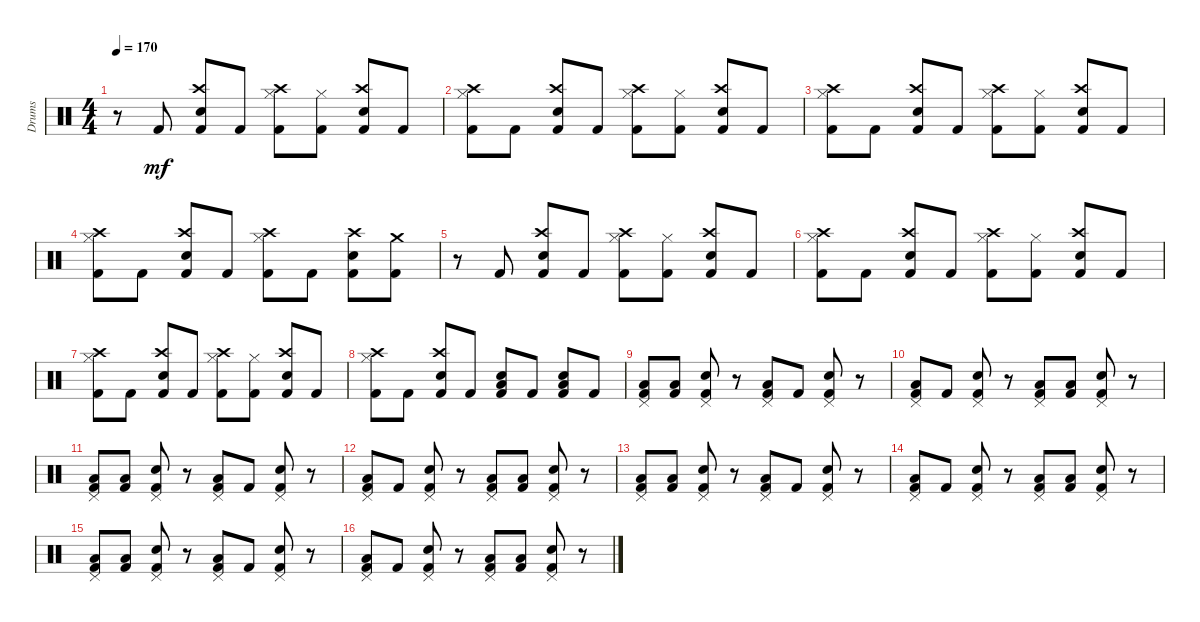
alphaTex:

\track ("Drums" "Drums") {instrument percussion}
\staff {score}
\articulation defaults
\ts (4 4)
\tempo 170
\clef neutral
\ks c
r.8{dy mf} "Kick (hit) 2".8 ("Crash high (hit)" "Electric Snare (hit)" "Kick (hit) 2").8 "Kick (hit) 2".8 ("Crash high (hit)" "Hi-Hat (closed)" "Kick (hit) 2").8 ("Hi-Hat (closed)" "Kick (hit) 2").8 ("Crash high (hit)" "Electric Snare (hit)" "Kick (hit) 2").8 "Kick (hit) 2".8 |
("Crash high (hit)" "Hi-Hat (closed)" "Kick (hit) 2").8 "Kick (hit) 2".8 ("Crash high (hit)" "Electric Snare (hit)" "Kick (hit) 2").8 "Kick (hit) 2".8 ("Crash high (hit)" "Hi-Hat (closed)" "Kick (hit) 2").8 ("Hi-Hat (closed)" "Kick (hit) 2").8 ("Crash high (hit)" "Electric Snare (hit)" "Kick (hit) 2").8 "Kick (hit) 2".8 |
("Crash high (hit)" "Hi-Hat (closed)" "Kick (hit) 2").8 "Kick (hit) 2".8 ("Crash high (hit)" "Electric Snare (hit)" "Kick (hit) 2").8 "Kick (hit) 2".8 ("Crash high (hit)" "Hi-Hat (closed)" "Kick (hit) 2").8 ("Hi-Hat (closed)" "Kick (hit) 2").8 ("Crash high (hit)" "Electric Snare (hit)" "Kick (hit) 2").8 "Kick (hit) 2".8 |
("Crash high (hit)" "Hi-Hat (closed)" "Kick (hit) 2").8 "Kick (hit) 2".8 ("Crash high (hit)" "Electric Snare (hit)" "Kick (hit) 2").8 "Kick (hit) 2".8 ("Crash high (hit)" "Hi-Hat (closed)" "Kick (hit) 2").8 "Kick (hit) 2".8 ("Crash high (hit)" "Electric Snare (hit)" "Kick (hit) 2").8 ("Crash medium (hit)" "Kick (hit) 2").8 |
r.8 "Kick (hit) 2".8 ("Crash high (hit)" "Electric Snare (hit)" "Kick (hit) 2").8 "Kick (hit) 2".8 ("Crash high (hit)" "Hi-Hat (closed)" "Kick (hit) 2").8 ("Hi-Hat (closed)" "Kick (hit) 2").8 ("Crash high (hit)" "Electric Snare (hit)" "Kick (hit) 2").8 "Kick (hit) 2".8 |
("Crash high (hit)" "Hi-Hat (closed)" "Kick (hit) 2").8 "Kick (hit) 2".8 ("Crash high (hit)" "Electric Snare (hit)" "Kick (hit) 2").8 "Kick (hit) 2".8 ("Crash high (hit)" "Hi-Hat (closed)" "Kick (hit) 2").8 ("Hi-Hat (closed)" "Kick (hit) 2").8 ("Crash high (hit)" "Electric Snare (hit)" "Kick (hit) 2").8 "Kick (hit) 2".8 |
("Crash high (hit)" "Hi-Hat (closed)" "Kick (hit) 2").8 "Kick (hit) 2".8 ("Crash high (hit)" "Electric Snare (hit)" "Kick (hit) 2").8 "Kick (hit) 2".8 ("Crash high (hit)" "Hi-Hat (closed)" "Kick (hit) 2").8 ("Hi-Hat (closed)" "Kick (hit) 2").8 ("Crash high (hit)" "Electric Snare (hit)" "Kick (hit) 2").8 "Kick (hit) 2".8 |
("Crash high (hit)" "Hi-Hat (closed)" "Kick (hit) 2").8 "Kick (hit) 2".8 ("Crash high (hit)" "Electric Snare (hit)" "Kick (hit) 2").8 "Kick (hit) 2".8 ("Low Tom (hit)" "Electric Snare (hit)" "Kick (hit) 2").8 "Kick (hit) 2".8 ("Low Tom (hit)" "Electric Snare (hit)" "Kick (hit) 2").8 "Kick (hit) 2".8 |
("Pedal Hi-Hat (hit)" "Low Tom (hit)" "Kick (hit) 2").8 ("Low Tom (hit)" "Kick (hit) 2").8 ("Pedal Hi-Hat (hit)" "Electric Snare (hit)" "Kick (hit) 2").8 r.8 ("Pedal Hi-Hat (hit)" "Low Tom (hit)" "Kick (hit) 2").8 "Kick (hit) 2".8 ("Pedal Hi-Hat (hit)" "Electric Snare (hit)" "Kick (hit) 2").8 r.8 |
("Pedal Hi-Hat (hit)" "Low Tom (hit)" "Kick (hit) 2").8 "Kick (hit) 2".8 ("Pedal Hi-Hat (hit)" "Electric Snare (hit)" "Kick (hit) 2").8 r.8 ("Pedal Hi-Hat (hit)" "Low Tom (hit)" "Kick (hit) 2").8 ("Low Tom (hit)" "Kick (hit) 2").8 ("Pedal Hi-Hat (hit)" "Electric Snare (hit)" "Kick (hit) 2").8 r.8 |
("Pedal Hi-Hat (hit)" "Low Tom (hit)" "Kick (hit) 2").8 ("Low Tom (hit)" "Kick (hit) 2").8 ("Pedal Hi-Hat (hit)" "Electric Snare (hit)" "Kick (hit) 2").8 r.8 ("Pedal Hi-Hat (hit)" "Low Tom (hit)" "Kick (hit) 2").8 "Kick (hit) 2".8 ("Pedal Hi-Hat (hit)" "Electric Snare (hit)" "Kick (hit) 2").8 r.8 |
("Pedal Hi-Hat (hit)" "Low Tom (hit)" "Kick (hit) 2").8 "Kick (hit) 2".8 ("Pedal Hi-Hat (hit)" "Electric Snare (hit)" "Kick (hit) 2").8 r.8 ("Pedal Hi-Hat (hit)" "Low Tom (hit)" "Kick (hit) 2").8 ("Low Tom (hit)" "Kick (hit) 2").8 ("Pedal Hi-Hat (hit)" "Electric Snare (hit)" "Kick (hit) 2").8 r.8 |
("Pedal Hi-Hat (hit)" "Low Tom (hit)" "Kick (hit) 2").8 ("Low Tom (hit)" "Kick (hit) 2").8 ("Pedal Hi-Hat (hit)" "Electric Snare (hit)" "Kick (hit) 2").8 r.8 ("Pedal Hi-Hat (hit)" "Low Tom (hit)" "Kick (hit) 2").8 "Kick (hit) 2".8 ("Pedal Hi-Hat (hit)" "Electric Snare (hit)" "Kick (hit) 2").8 r.8 |
("Pedal Hi-Hat (hit)" "Low Tom (hit)" "Kick (hit) 2").8 "Kick (hit) 2".8 ("Pedal Hi-Hat (hit)" "Electric Snare (hit)" "Kick (hit) 2").8 r.8 ("Pedal Hi-Hat (hit)" "Low Tom (hit)" "Kick (hit) 2").8 ("Low Tom (hit)" "Kick (hit) 2").8 ("Pedal Hi-Hat (hit)" "Electric Snare (hit)" "Kick (hit) 2").8 r.8 |
("Pedal Hi-Hat (hit)" "Low Tom (hit)" "Kick (hit) 2").8 ("Low Tom (hit)" "Kick (hit) 2").8 ("Pedal Hi-Hat (hit)" "Electric Snare (hit)" "Kick (hit) 2").8 r.8 ("Pedal Hi-Hat (hit)" "Low Tom (hit)" "Kick (hit) 2").8 "Kick (hit) 2".8 ("Pedal Hi-Hat (hit)" "Electric Snare (hit)" "Kick (hit) 2").8 r.8 |
("Pedal Hi-Hat (hit)" "Low Tom (hit)" "Kick (hit) 2").8 "Kick (hit) 2".8 ("Pedal Hi-Hat (hit)" "Electric Snare (hit)" "Kick (hit) 2").8 r.8 ("Pedal Hi-Hat (hit)" "Low Tom (hit)" "Kick (hit) 2").8 ("Low Tom (hit)" "Kick (hit) 2").8 ("Pedal Hi-Hat (hit)" "Electric Snare (hit)" "Kick (hit) 2").8 r.8
